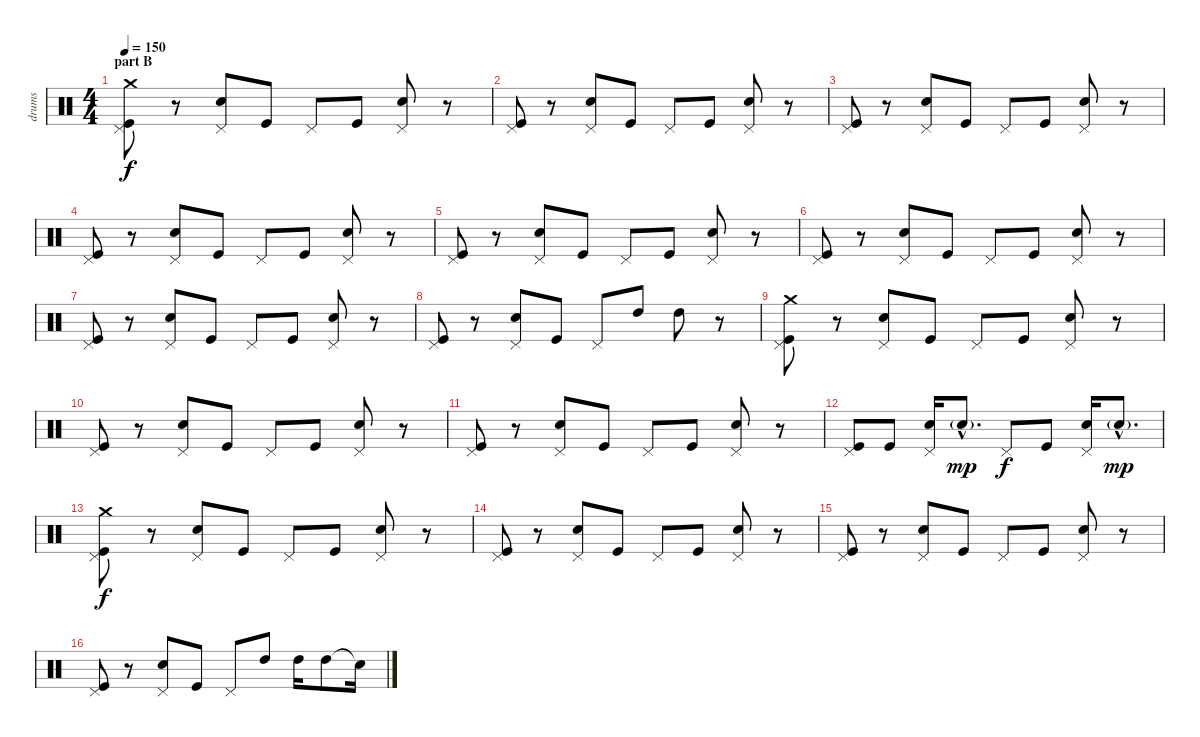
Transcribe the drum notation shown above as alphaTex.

\track ("drums" "drums") {instrument percussion}
\staff {score}
\articulation defaults
\ts (4 4)
\section ("" "part B")
\tempo 150
\clef neutral
\ks c
("Pedal Hi-Hat (hit)" "Kick (hit)" "Crash medium (hit)").8{dy f} r.8 ("Pedal Hi-Hat (hit)" "Snare (hit) 2").8 "Kick (hit)".8 "Pedal Hi-Hat (hit)".8 "Kick (hit)".8 ("Pedal Hi-Hat (hit)" "Snare (hit) 2").8 r.8 |
("Pedal Hi-Hat (hit)" "Kick (hit)").8 r.8 ("Pedal Hi-Hat (hit)" "Snare (hit) 2").8 "Kick (hit)".8 "Pedal Hi-Hat (hit)".8 "Kick (hit)".8 ("Pedal Hi-Hat (hit)" "Snare (hit) 2").8 r.8 |
("Pedal Hi-Hat (hit)" "Kick (hit)").8 r.8 ("Pedal Hi-Hat (hit)" "Snare (hit) 2").8 "Kick (hit)".8 "Pedal Hi-Hat (hit)".8 "Kick (hit)".8 ("Pedal Hi-Hat (hit)" "Snare (hit) 2").8 r.8 |
("Pedal Hi-Hat (hit)" "Kick (hit)").8 r.8 ("Pedal Hi-Hat (hit)" "Snare (hit) 2").8 "Kick (hit)".8 "Pedal Hi-Hat (hit)".8 "Kick (hit)".8 ("Pedal Hi-Hat (hit)" "Snare (hit) 2").8 r.8 |
("Pedal Hi-Hat (hit)" "Kick (hit)").8 r.8 ("Pedal Hi-Hat (hit)" "Snare (hit) 2").8 "Kick (hit)".8 "Pedal Hi-Hat (hit)".8 "Kick (hit)".8 ("Pedal Hi-Hat (hit)" "Snare (hit) 2").8 r.8 |
("Pedal Hi-Hat (hit)" "Kick (hit)").8 r.8 ("Pedal Hi-Hat (hit)" "Snare (hit) 2").8 "Kick (hit)".8 "Pedal Hi-Hat (hit)".8 "Kick (hit)".8 ("Pedal Hi-Hat (hit)" "Snare (hit) 2").8 r.8 |
("Pedal Hi-Hat (hit)" "Kick (hit)").8 r.8 ("Pedal Hi-Hat (hit)" "Snare (hit) 2").8 "Kick (hit)".8 "Pedal Hi-Hat (hit)".8 "Kick (hit)".8 ("Pedal Hi-Hat (hit)" "Snare (hit) 2").8 r.8 |
("Pedal Hi-Hat (hit)" "Kick (hit)").8 r.8 ("Pedal Hi-Hat (hit)" "Snare (hit) 2").8 "Kick (hit)".8 "Pedal Hi-Hat (hit)".8 "High Tom (hit)".8 "High Tom (hit)".8 r.8 |
("Pedal Hi-Hat (hit)" "Kick (hit)" "Crash medium (hit)").8 r.8 ("Pedal Hi-Hat (hit)" "Snare (hit) 2").8 "Kick (hit)".8 "Pedal Hi-Hat (hit)".8 "Kick (hit)".8 ("Pedal Hi-Hat (hit)" "Snare (hit) 2").8 r.8 |
("Pedal Hi-Hat (hit)" "Kick (hit)").8 r.8 ("Pedal Hi-Hat (hit)" "Snare (hit) 2").8 "Kick (hit)".8 "Pedal Hi-Hat (hit)".8 "Kick (hit)".8 ("Pedal Hi-Hat (hit)" "Snare (hit) 2").8 r.8 |
("Pedal Hi-Hat (hit)" "Kick (hit)").8 r.8 ("Pedal Hi-Hat (hit)" "Snare (hit) 2").8 "Kick (hit)".8 "Pedal Hi-Hat (hit)".8 "Kick (hit)".8 ("Pedal Hi-Hat (hit)" "Snare (hit) 2").8 r.8 |
("Pedal Hi-Hat (hit)" "Kick (hit)").8 "Kick (hit)".8 ("Pedal Hi-Hat (hit)" "Snare (hit) 2").16 "Snare (hit) 2"{g hac}.8{d dy mp} "Pedal Hi-Hat (hit)".8{dy f} "Kick (hit)".8 ("Pedal Hi-Hat (hit)" "Snare (hit) 2").16 "Snare (hit) 2"{g hac}.8{d dy mp} |
("Pedal Hi-Hat (hit)" "Kick (hit)" "Crash medium (hit)").8{dy f} r.8 ("Pedal Hi-Hat (hit)" "Snare (hit) 2").8 "Kick (hit)".8 "Pedal Hi-Hat (hit)".8 "Kick (hit)".8 ("Pedal Hi-Hat (hit)" "Snare (hit) 2").8 r.8 |
("Pedal Hi-Hat (hit)" "Kick (hit)").8 r.8 ("Pedal Hi-Hat (hit)" "Snare (hit) 2").8 "Kick (hit)".8 "Pedal Hi-Hat (hit)".8 "Kick (hit)".8 ("Pedal Hi-Hat (hit)" "Snare (hit) 2").8 r.8 |
("Pedal Hi-Hat (hit)" "Kick (hit)").8 r.8 ("Pedal Hi-Hat (hit)" "Snare (hit) 2").8 "Kick (hit)".8 "Pedal Hi-Hat (hit)".8 "Kick (hit)".8 ("Pedal Hi-Hat (hit)" "Snare (hit) 2").8 r.8 |
("Pedal Hi-Hat (hit)" "Kick (hit)").8 r.8 ("Pedal Hi-Hat (hit)" "Snare (hit) 2").8 "Kick (hit)".8 "Pedal Hi-Hat (hit)".8 "High Tom (hit)".8 "High Tom (hit)".16 "High Tom (hit)".8 "Snare (hit)"{t}.16
